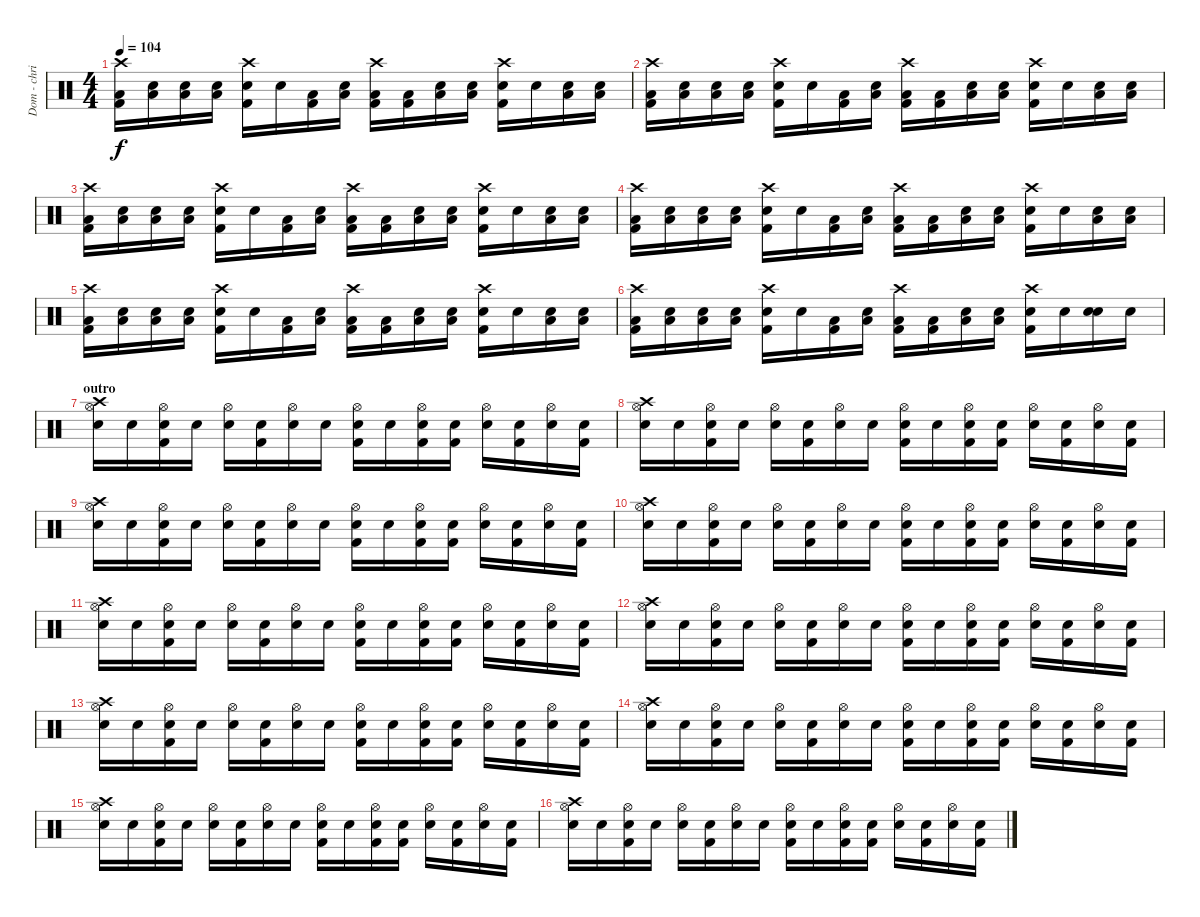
\track ("Dom - chris" "Dom - chri") {instrument percussion}
\staff {score}
\articulation defaults
\ts (4 4)
\tempo 104
\clef neutral
\ks c
("Crash high (hit)" "Low Tom (hit)" "Kick (hit) 2").16{dy f} ("Low Floor Tom (hit)" "Snare (hit)"{x}).16 ("Low Tom (hit)" "Snare (hit)"{x}).16 ("Low Floor Tom (hit)" "Snare (hit)"{x}).16 ("Crash high (hit)" "Snare (hit) 2" "Kick (hit) 2").16 "Snare (hit)"{x}.16 ("Low Tom (hit)" "Kick (hit) 2").16 ("Low Floor Tom (hit)" "Snare (hit)"{x}).16 ("Crash high (hit)" "Low Tom (hit)" "Kick (hit) 2").16 ("Low Floor Tom (hit)" "Kick (hit) 2"{x}).16 ("Low Tom (hit)" "Snare (hit)"{x}).16 ("Low Floor Tom (hit)" "Snare (hit)"{x}).16 ("Crash high (hit)" "Snare (hit) 2" "Kick (hit) 2").16 "Snare (hit)"{x}.16 ("Low Tom (hit)" "Snare (hit)"{x}).16 ("Low Floor Tom (hit)" "Snare (hit)"{x}).16 |
("Crash high (hit)" "Low Tom (hit)" "Kick (hit) 2").16 ("Low Floor Tom (hit)" "Snare (hit)"{x}).16 ("Low Tom (hit)" "Snare (hit)"{x}).16 ("Low Floor Tom (hit)" "Snare (hit)"{x}).16 ("Crash high (hit)" "Snare (hit) 2" "Kick (hit) 2").16 "Snare (hit)"{x}.16 ("Low Tom (hit)" "Kick (hit) 2").16 ("Low Floor Tom (hit)" "Snare (hit)"{x}).16 ("Crash high (hit)" "Low Tom (hit)" "Kick (hit) 2").16 ("Low Floor Tom (hit)" "Kick (hit) 2"{x}).16 ("Low Tom (hit)" "Snare (hit)"{x}).16 ("Low Floor Tom (hit)" "Snare (hit)"{x}).16 ("Crash high (hit)" "Snare (hit) 2" "Kick (hit) 2").16 "Snare (hit)"{x}.16 ("Low Tom (hit)" "Snare (hit)"{x}).16 ("Low Floor Tom (hit)" "Snare (hit)"{x}).16 |
("Crash high (hit)" "Low Tom (hit)" "Kick (hit) 2").16 ("Low Floor Tom (hit)" "Snare (hit)"{x}).16 ("Low Tom (hit)" "Snare (hit)"{x}).16 ("Low Floor Tom (hit)" "Snare (hit)"{x}).16 ("Crash high (hit)" "Snare (hit) 2" "Kick (hit) 2").16 "Snare (hit)"{x}.16 ("Low Tom (hit)" "Kick (hit) 2").16 ("Low Floor Tom (hit)" "Snare (hit)"{x}).16 ("Crash high (hit)" "Low Tom (hit)" "Kick (hit) 2").16 ("Low Floor Tom (hit)" "Kick (hit) 2"{x}).16 ("Low Tom (hit)" "Snare (hit)"{x}).16 ("Low Floor Tom (hit)" "Snare (hit)"{x}).16 ("Crash high (hit)" "Snare (hit) 2" "Kick (hit) 2").16 "Snare (hit)"{x}.16 ("Low Tom (hit)" "Snare (hit)"{x}).16 ("Low Floor Tom (hit)" "Snare (hit)"{x}).16 |
("Crash high (hit)" "Low Tom (hit)" "Kick (hit) 2").16 ("Low Floor Tom (hit)" "Snare (hit)"{x}).16 ("Low Tom (hit)" "Snare (hit)"{x}).16 ("Low Floor Tom (hit)" "Snare (hit)"{x}).16 ("Crash high (hit)" "Snare (hit) 2" "Kick (hit) 2").16 "Snare (hit)"{x}.16 ("Low Tom (hit)" "Kick (hit) 2").16 ("Low Floor Tom (hit)" "Snare (hit)"{x}).16 ("Crash high (hit)" "Low Tom (hit)" "Kick (hit) 2").16 ("Low Floor Tom (hit)" "Kick (hit) 2"{x}).16 ("Low Tom (hit)" "Snare (hit)"{x}).16 ("Low Floor Tom (hit)" "Snare (hit)"{x}).16 ("Crash high (hit)" "Snare (hit) 2" "Kick (hit) 2").16 "Snare (hit)"{x}.16 ("Low Tom (hit)" "Snare (hit)"{x}).16 ("Low Floor Tom (hit)" "Snare (hit)"{x}).16 |
("Crash high (hit)" "Low Tom (hit)" "Kick (hit) 2").16 ("Low Floor Tom (hit)" "Snare (hit)"{x}).16 ("Low Tom (hit)" "Snare (hit)"{x}).16 ("Low Floor Tom (hit)" "Snare (hit)"{x}).16 ("Crash high (hit)" "Snare (hit) 2" "Kick (hit) 2").16 "Snare (hit)"{x}.16 ("Low Tom (hit)" "Kick (hit) 2").16 ("Low Floor Tom (hit)" "Snare (hit)"{x}).16 ("Crash high (hit)" "Low Tom (hit)" "Kick (hit) 2").16 ("Low Floor Tom (hit)" "Kick (hit) 2"{x}).16 ("Low Tom (hit)" "Snare (hit)"{x}).16 ("Low Floor Tom (hit)" "Snare (hit)"{x}).16 ("Crash high (hit)" "Snare (hit) 2" "Kick (hit) 2").16 "Snare (hit)"{x}.16 ("Low Tom (hit)" "Snare (hit)"{x}).16 ("Low Floor Tom (hit)" "Snare (hit)"{x}).16 |
("Crash high (hit)" "Low Tom (hit)" "Kick (hit) 2").16 ("Low Floor Tom (hit)" "Snare (hit)"{x}).16 ("Low Tom (hit)" "Snare (hit)"{x}).16 ("Low Floor Tom (hit)" "Snare (hit)"{x}).16 ("Crash high (hit)" "Snare (hit) 2" "Kick (hit) 2").16 "Snare (hit)"{x}.16 ("Low Tom (hit)" "Kick (hit) 2").16 ("Low Floor Tom (hit)" "Snare (hit)"{x}).16 ("Crash high (hit)" "Low Tom (hit)" "Kick (hit) 2").16 ("Low Floor Tom (hit)" "Kick (hit) 2"{x}).16 ("Low Tom (hit)" "Snare (hit)"{x}).16 ("Low Floor Tom (hit)" "Snare (hit)"{x}).16 ("Crash high (hit)" "Snare (hit) 2" "Kick (hit) 2").16 "Snare (hit)"{x}.16 ("Snare (hit) 2" "Snare (hit)"{x}).16 "Snare (hit)"{x}.16 |
\section ("" "outro")
("Crash high (hit)" "Hi-Hat (open)" "Snare (hit) 2").16 "Snare (hit) 2"{x}.16 ("Hi-Hat (open)" "Snare (hit) 2"{x} "Kick (hit) 2").16 "Snare (hit) 2".16 ("Hi-Hat (open)" "Snare (hit) 2"{x}).16 ("Snare (hit) 2"{x} "Kick (hit) 2").16 ("Hi-Hat (open)" "Snare (hit) 2").16 "Snare (hit) 2"{x}.16 ("Hi-Hat (open)" "Snare (hit) 2"{x} "Kick (hit) 2").16 "Snare (hit) 2".16 ("Hi-Hat (open)" "Snare (hit) 2"{x} "Kick (hit) 2").16 ("Snare (hit) 2"{x} "Kick (hit) 2").16 ("Hi-Hat (open)" "Snare (hit) 2").16 ("Snare (hit) 2"{x} "Kick (hit) 2").16 ("Hi-Hat (open)" "Snare (hit) 2").16 ("Snare (hit) 2"{x} "Kick (hit) 2").16 |
("Crash high (hit)" "Hi-Hat (open)" "Snare (hit) 2").16 "Snare (hit) 2"{x}.16 ("Hi-Hat (open)" "Snare (hit) 2"{x} "Kick (hit) 2").16 "Snare (hit) 2".16 ("Hi-Hat (open)" "Snare (hit) 2"{x}).16 ("Snare (hit) 2"{x} "Kick (hit) 2").16 ("Hi-Hat (open)" "Snare (hit) 2").16 "Snare (hit) 2"{x}.16 ("Hi-Hat (open)" "Snare (hit) 2"{x} "Kick (hit) 2").16 "Snare (hit) 2".16 ("Hi-Hat (open)" "Snare (hit) 2"{x} "Kick (hit) 2").16 ("Snare (hit) 2"{x} "Kick (hit) 2").16 ("Hi-Hat (open)" "Snare (hit) 2").16 ("Snare (hit) 2"{x} "Kick (hit) 2").16 ("Hi-Hat (open)" "Snare (hit) 2").16 ("Snare (hit) 2"{x} "Kick (hit) 2").16 |
("Crash high (hit)" "Hi-Hat (open)" "Snare (hit) 2").16 "Snare (hit) 2"{x}.16 ("Hi-Hat (open)" "Snare (hit) 2"{x} "Kick (hit) 2").16 "Snare (hit) 2".16 ("Hi-Hat (open)" "Snare (hit) 2"{x}).16 ("Snare (hit) 2"{x} "Kick (hit) 2").16 ("Hi-Hat (open)" "Snare (hit) 2").16 "Snare (hit) 2"{x}.16 ("Hi-Hat (open)" "Snare (hit) 2"{x} "Kick (hit) 2").16 "Snare (hit) 2".16 ("Hi-Hat (open)" "Snare (hit) 2"{x} "Kick (hit) 2").16 ("Snare (hit) 2"{x} "Kick (hit) 2").16 ("Hi-Hat (open)" "Snare (hit) 2").16 ("Snare (hit) 2"{x} "Kick (hit) 2").16 ("Hi-Hat (open)" "Snare (hit) 2").16 ("Snare (hit) 2"{x} "Kick (hit) 2").16 |
("Crash high (hit)" "Hi-Hat (open)" "Snare (hit) 2").16 "Snare (hit) 2"{x}.16 ("Hi-Hat (open)" "Snare (hit) 2"{x} "Kick (hit) 2").16 "Snare (hit) 2".16 ("Hi-Hat (open)" "Snare (hit) 2"{x}).16 ("Snare (hit) 2"{x} "Kick (hit) 2").16 ("Hi-Hat (open)" "Snare (hit) 2").16 "Snare (hit) 2"{x}.16 ("Hi-Hat (open)" "Snare (hit) 2"{x} "Kick (hit) 2").16 "Snare (hit) 2".16 ("Hi-Hat (open)" "Snare (hit) 2"{x} "Kick (hit) 2").16 ("Snare (hit) 2"{x} "Kick (hit) 2").16 ("Hi-Hat (open)" "Snare (hit) 2").16 ("Snare (hit) 2"{x} "Kick (hit) 2").16 ("Hi-Hat (open)" "Snare (hit) 2").16 ("Snare (hit) 2"{x} "Kick (hit) 2").16 |
("Crash high (hit)" "Hi-Hat (open)" "Snare (hit) 2").16 "Snare (hit) 2"{x}.16 ("Hi-Hat (open)" "Snare (hit) 2"{x} "Kick (hit) 2").16 "Snare (hit) 2".16 ("Hi-Hat (open)" "Snare (hit) 2"{x}).16 ("Snare (hit) 2"{x} "Kick (hit) 2").16 ("Hi-Hat (open)" "Snare (hit) 2").16 "Snare (hit) 2"{x}.16 ("Hi-Hat (open)" "Snare (hit) 2"{x} "Kick (hit) 2").16 "Snare (hit) 2".16 ("Hi-Hat (open)" "Snare (hit) 2"{x} "Kick (hit) 2").16 ("Snare (hit) 2"{x} "Kick (hit) 2").16 ("Hi-Hat (open)" "Snare (hit) 2").16 ("Snare (hit) 2"{x} "Kick (hit) 2").16 ("Hi-Hat (open)" "Snare (hit) 2").16 ("Snare (hit) 2"{x} "Kick (hit) 2").16 |
("Crash high (hit)" "Hi-Hat (open)" "Snare (hit) 2").16 "Snare (hit) 2"{x}.16 ("Hi-Hat (open)" "Snare (hit) 2"{x} "Kick (hit) 2").16 "Snare (hit) 2".16 ("Hi-Hat (open)" "Snare (hit) 2"{x}).16 ("Snare (hit) 2"{x} "Kick (hit) 2").16 ("Hi-Hat (open)" "Snare (hit) 2").16 "Snare (hit) 2"{x}.16 ("Hi-Hat (open)" "Snare (hit) 2"{x} "Kick (hit) 2").16 "Snare (hit) 2".16 ("Hi-Hat (open)" "Snare (hit) 2"{x} "Kick (hit) 2").16 ("Snare (hit) 2"{x} "Kick (hit) 2").16 ("Hi-Hat (open)" "Snare (hit) 2").16 ("Snare (hit) 2"{x} "Kick (hit) 2").16 ("Hi-Hat (open)" "Snare (hit) 2").16 ("Snare (hit) 2"{x} "Kick (hit) 2").16 |
("Crash high (hit)" "Hi-Hat (open)" "Snare (hit) 2").16 "Snare (hit) 2"{x}.16 ("Hi-Hat (open)" "Snare (hit) 2"{x} "Kick (hit) 2").16 "Snare (hit) 2".16 ("Hi-Hat (open)" "Snare (hit) 2"{x}).16 ("Snare (hit) 2"{x} "Kick (hit) 2").16 ("Hi-Hat (open)" "Snare (hit) 2").16 "Snare (hit) 2"{x}.16 ("Hi-Hat (open)" "Snare (hit) 2"{x} "Kick (hit) 2").16 "Snare (hit) 2".16 ("Hi-Hat (open)" "Snare (hit) 2"{x} "Kick (hit) 2").16 ("Snare (hit) 2"{x} "Kick (hit) 2").16 ("Hi-Hat (open)" "Snare (hit) 2").16 ("Snare (hit) 2"{x} "Kick (hit) 2").16 ("Hi-Hat (open)" "Snare (hit) 2").16 ("Snare (hit) 2"{x} "Kick (hit) 2").16 |
("Crash high (hit)" "Hi-Hat (open)" "Snare (hit) 2").16 "Snare (hit) 2"{x}.16 ("Hi-Hat (open)" "Snare (hit) 2"{x} "Kick (hit) 2").16 "Snare (hit) 2".16 ("Hi-Hat (open)" "Snare (hit) 2"{x}).16 ("Snare (hit) 2"{x} "Kick (hit) 2").16 ("Hi-Hat (open)" "Snare (hit) 2").16 "Snare (hit) 2"{x}.16 ("Hi-Hat (open)" "Snare (hit) 2"{x} "Kick (hit) 2").16 "Snare (hit) 2".16 ("Hi-Hat (open)" "Snare (hit) 2"{x} "Kick (hit) 2").16 ("Snare (hit) 2"{x} "Kick (hit) 2").16 ("Hi-Hat (open)" "Snare (hit) 2").16 ("Snare (hit) 2"{x} "Kick (hit) 2").16 ("Hi-Hat (open)" "Snare (hit) 2").16 ("Snare (hit) 2"{x} "Kick (hit) 2").16 |
("Crash high (hit)" "Hi-Hat (open)" "Snare (hit) 2").16 "Snare (hit) 2"{x}.16 ("Hi-Hat (open)" "Snare (hit) 2"{x} "Kick (hit) 2").16 "Snare (hit) 2".16 ("Hi-Hat (open)" "Snare (hit) 2"{x}).16 ("Snare (hit) 2"{x} "Kick (hit) 2").16 ("Hi-Hat (open)" "Snare (hit) 2").16 "Snare (hit) 2"{x}.16 ("Hi-Hat (open)" "Snare (hit) 2"{x} "Kick (hit) 2").16 "Snare (hit) 2".16 ("Hi-Hat (open)" "Snare (hit) 2"{x} "Kick (hit) 2").16 ("Snare (hit) 2"{x} "Kick (hit) 2").16 ("Hi-Hat (open)" "Snare (hit) 2").16 ("Snare (hit) 2"{x} "Kick (hit) 2").16 ("Hi-Hat (open)" "Snare (hit) 2").16 ("Snare (hit) 2"{x} "Kick (hit) 2").16 |
("Crash high (hit)" "Hi-Hat (open)" "Snare (hit) 2").16 "Snare (hit) 2"{x}.16 ("Hi-Hat (open)" "Snare (hit) 2"{x} "Kick (hit) 2").16 "Snare (hit) 2".16 ("Hi-Hat (open)" "Snare (hit) 2"{x}).16 ("Snare (hit) 2"{x} "Kick (hit) 2").16 ("Hi-Hat (open)" "Snare (hit) 2").16 "Snare (hit) 2"{x}.16 ("Hi-Hat (open)" "Snare (hit) 2"{x} "Kick (hit) 2").16 "Snare (hit) 2".16 ("Hi-Hat (open)" "Snare (hit) 2"{x} "Kick (hit) 2").16 ("Snare (hit) 2"{x} "Kick (hit) 2").16 ("Hi-Hat (open)" "Snare (hit) 2").16 ("Snare (hit) 2"{x} "Kick (hit) 2").16 ("Hi-Hat (open)" "Snare (hit) 2").16 ("Snare (hit) 2"{x} "Kick (hit) 2").16
